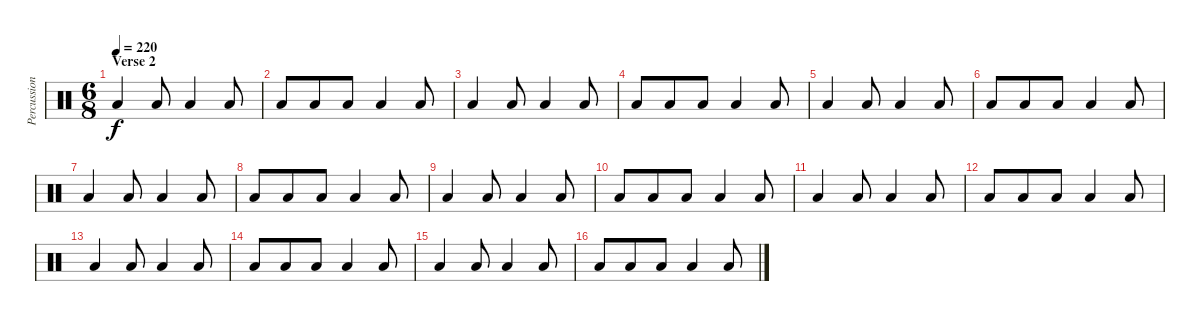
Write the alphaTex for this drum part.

\track ("Percussion" "Percussion") {instrument percussion}
\staff {score}
\articulation defaults
\ts (6 8)
\section ("" "Verse 2")
\tempo 220
\clef neutral
\ks c "Low Floor Tom (hit)".4{dy f} "Low Floor Tom (hit)".8 "Low Tom (hit)".4 "Low Tom (hit)".8
|
"Low Floor Tom (hit)".8 "Low Floor Tom (hit)".8 "Low Floor Tom (hit)".8 "Low Tom (hit)".4 "Low Tom (hit)".8 |
"Low Floor Tom (hit)".4 "Low Floor Tom (hit)".8 "Low Tom (hit)".4 "Low Tom (hit)".8 |
"Low Floor Tom (hit)".8 "Low Floor Tom (hit)".8 "Low Floor Tom (hit)".8 "Low Tom (hit)".4 "Low Tom (hit)".8 |
"Low Floor Tom (hit)".4 "Low Floor Tom (hit)".8 "Low Tom (hit)".4 "Low Tom (hit)".8 |
"Low Floor Tom (hit)".8 "Low Floor Tom (hit)".8 "Low Floor Tom (hit)".8 "Low Tom (hit)".4 "Low Tom (hit)".8 |
"Low Floor Tom (hit)".4 "Low Floor Tom (hit)".8 "Low Tom (hit)".4 "Low Tom (hit)".8 |
"Low Floor Tom (hit)".8 "Low Floor Tom (hit)".8 "Low Floor Tom (hit)".8 "Low Tom (hit)".4 "Low Tom (hit)".8 |
"Low Floor Tom (hit)".4 "Low Floor Tom (hit)".8 "Low Tom (hit)".4 "Low Tom (hit)".8 |
"Low Floor Tom (hit)".8 "Low Floor Tom (hit)".8 "Low Floor Tom (hit)".8 "Low Tom (hit)".4 "Low Tom (hit)".8 |
"Low Floor Tom (hit)".4 "Low Floor Tom (hit)".8 "Low Tom (hit)".4 "Low Tom (hit)".8 |
"Low Floor Tom (hit)".8 "Low Floor Tom (hit)".8 "Low Floor Tom (hit)".8 "Low Tom (hit)".4 "Low Tom (hit)".8 |
"Low Floor Tom (hit)".4 "Low Floor Tom (hit)".8 "Low Tom (hit)".4 "Low Tom (hit)".8 |
"Low Floor Tom (hit)".8 "Low Floor Tom (hit)".8 "Low Floor Tom (hit)".8 "Low Tom (hit)".4 "Low Tom (hit)".8 |
"Low Floor Tom (hit)".4 "Low Floor Tom (hit)".8 "Low Tom (hit)".4 "Low Tom (hit)".8 |
"Low Floor Tom (hit)".8 "Low Floor Tom (hit)".8 "Low Floor Tom (hit)".8 "Low Tom (hit)".4 "Low Tom (hit)".8
